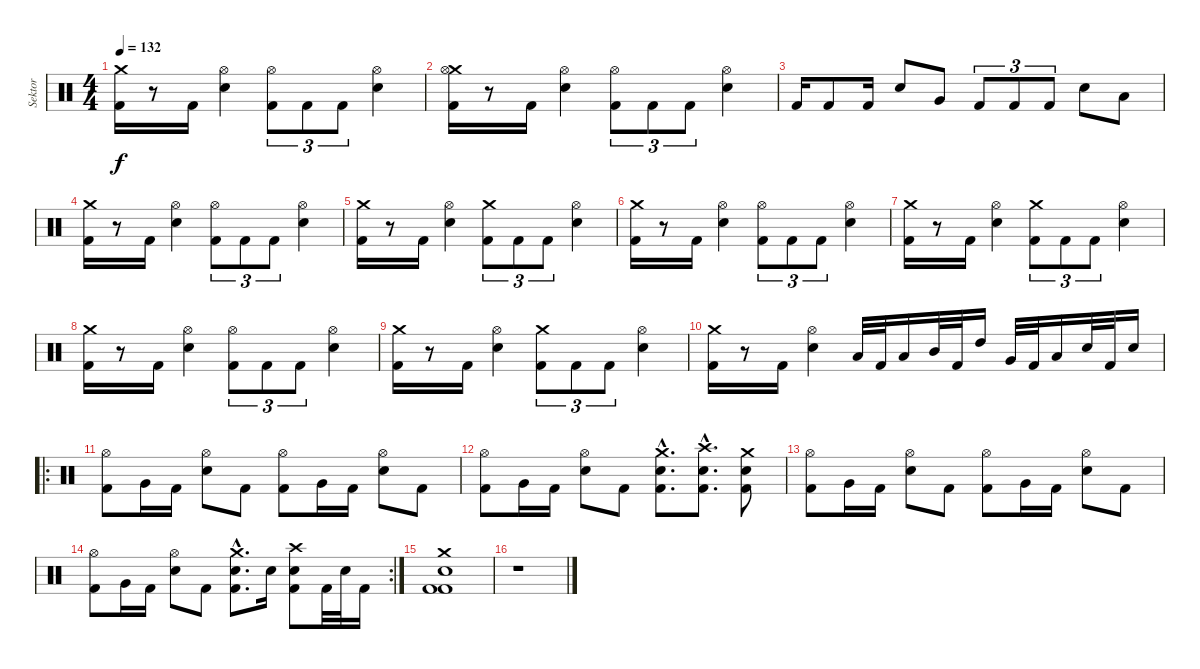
\track ("Sektor" "Sektor") {instrument percussion}
\staff {score}
\articulation defaults
\ts (4 4)
\tempo 132
\clef neutral
\ks c
("Crash medium (hit)" "Kick (hit) 2").16{dy f} r.8 "Kick (hit) 2".16 ("Hi-Hat (open)" "Snare (hit) 2").4 ("Hi-Hat (open)" "Kick (hit) 2").8{tu (3 2)} "Kick (hit) 2".8{tu (3 2)} "Kick (hit) 2".8{tu (3 2)} ("Hi-Hat (open)" "Snare (hit) 2").4 |
("Crash medium (hit)" "Hi-Hat (open)" "Kick (hit) 2").16 r.8 "Kick (hit) 2".16 ("Hi-Hat (open)" "Snare (hit) 2").4 ("Hi-Hat (open)" "Kick (hit) 2").8{tu (3 2)} "Kick (hit) 2".8{tu (3 2)} "Kick (hit) 2".8{tu (3 2)} ("Hi-Hat (open)" "Snare (hit) 2").4 |
"Kick (hit) 2".16 "Kick (hit) 2".8 "Kick (hit) 2".16 "Snare (hit) 2".8 "Very Low Tom (hit)".8 "Kick (hit) 2".8{tu (3 2)} "Kick (hit) 2".8{tu (3 2)} "Kick (hit) 2".8{tu (3 2)} "Snare (hit) 2".8 "Low Tom (hit)".8 |
("Crash medium (hit)" "Kick (hit) 2").16 r.8 "Kick (hit) 2".16 ("Hi-Hat (open)" "Snare (hit) 2").4 ("Hi-Hat (open)" "Kick (hit) 2").8{tu (3 2)} "Kick (hit) 2".8{tu (3 2)} "Kick (hit) 2".8{tu (3 2)} ("Hi-Hat (open)" "Snare (hit) 2").4 |
("Crash medium (hit)" "Kick (hit) 2").16 r.8 "Kick (hit) 2".16 ("Hi-Hat (open)" "Snare (hit) 2").4 ("Crash medium (hit)" "Kick (hit) 2").8{tu (3 2)} "Kick (hit) 2".8{tu (3 2)} "Kick (hit) 2".8{tu (3 2)} ("Hi-Hat (open)" "Snare (hit) 2").4 |
("Crash medium (hit)" "Kick (hit) 2").16 r.8 "Kick (hit) 2".16 ("Hi-Hat (open)" "Snare (hit) 2").4 ("Hi-Hat (open)" "Kick (hit) 2").8{tu (3 2)} "Kick (hit) 2".8{tu (3 2)} "Kick (hit) 2".8{tu (3 2)} ("Hi-Hat (open)" "Snare (hit) 2").4 |
("Crash medium (hit)" "Kick (hit) 2").16 r.8 "Kick (hit) 2".16 ("Hi-Hat (open)" "Snare (hit) 2").4 ("Crash medium (hit)" "Kick (hit) 2").8{tu (3 2)} "Kick (hit) 2".8{tu (3 2)} "Kick (hit) 2".8{tu (3 2)} ("Hi-Hat (open)" "Snare (hit) 2").4 |
("Crash medium (hit)" "Kick (hit) 2").16 r.8 "Kick (hit) 2".16 ("Hi-Hat (open)" "Snare (hit) 2").4 ("Hi-Hat (open)" "Kick (hit) 2").8{tu (3 2)} "Kick (hit) 2".8{tu (3 2)} "Kick (hit) 2".8{tu (3 2)} ("Hi-Hat (open)" "Snare (hit) 2").4 |
("Crash medium (hit)" "Kick (hit) 2").16 r.8 "Kick (hit) 2".16 ("Hi-Hat (open)" "Snare (hit) 2").4 ("Crash medium (hit)" "Kick (hit) 2").8{tu (3 2)} "Kick (hit) 2".8{tu (3 2)} "Kick (hit) 2".8{tu (3 2)} ("Hi-Hat (open)" "Snare (hit) 2").4 |
("Crash medium (hit)" "Kick (hit) 2").16 r.8 "Kick (hit) 2".16 ("Hi-Hat (open)" "Snare (hit) 2").4 "Low Tom (hit)".32 "Kick (hit) 2".32 "Low Tom (hit)".16 "Mid Tom (hit)".32 "Kick (hit) 2".32 "High Tom (hit)".16 "Very Low Tom (hit)".32 "Kick (hit) 2".32 "Low Tom (hit)".16 "Snare (hit) 2".32 "Kick (hit) 2".32 "Snare (hit) 2".16 |
\ro
("Hi-Hat (open)" "Kick (hit) 2").8 "Very Low Tom (hit)".16 "Kick (hit) 2".16 ("Hi-Hat (open)" "Snare (hit) 2").8 "Kick (hit) 2".8 ("Hi-Hat (open)" "Kick (hit) 2").8 "Very Low Tom (hit)".16 "Kick (hit) 2".16 ("Hi-Hat (open)" "Snare (hit) 2").8 "Kick (hit) 2".8 |
("Hi-Hat (open)" "Kick (hit) 2").8 "Very Low Tom (hit)".16 "Kick (hit) 2".16 ("Hi-Hat (open)" "Snare (hit) 2").8 "Kick (hit) 2".8 ("Crash medium (hit)"{hac} "Snare (hit) 2"{hac} "Kick (hit) 2"{hac}).8{d} ("Crash high (hit)"{hac} "Snare (hit) 2"{hac} "Kick (hit) 2"{hac}).8{d} ("Crash medium (hit)" "Snare (hit) 2" "Kick (hit) 2").8 |
("Hi-Hat (open)" "Kick (hit) 2").8 "Very Low Tom (hit)".16 "Kick (hit) 2".16 ("Hi-Hat (open)" "Snare (hit) 2").8 "Kick (hit) 2".8 ("Hi-Hat (open)" "Kick (hit) 2").8 "Very Low Tom (hit)".16 "Kick (hit) 2".16 ("Hi-Hat (open)" "Snare (hit) 2").8 "Kick (hit) 2".8 |
\rc 2
("Hi-Hat (open)" "Kick (hit) 2").8 "Very Low Tom (hit)".16 "Kick (hit) 2".16 ("Hi-Hat (open)" "Snare (hit) 2").8 "Kick (hit) 2".8 ("Crash medium (hit)"{hac} "Snare (hit) 2"{hac} "Kick (hit) 2"{hac}).8{d} "Snare (hit) 2".16 ("Crash high (hit)" "Snare (hit) 2" "Kick (hit) 2").8 "Kick (hit) 2".32 "Snare (hit) 2".32 "Kick (hit) 2".16 |
("Crash medium (hit)" "Snare (hit) 2" "Kick (hit) 2" "Kick (hit) 2").1 |
r.1
